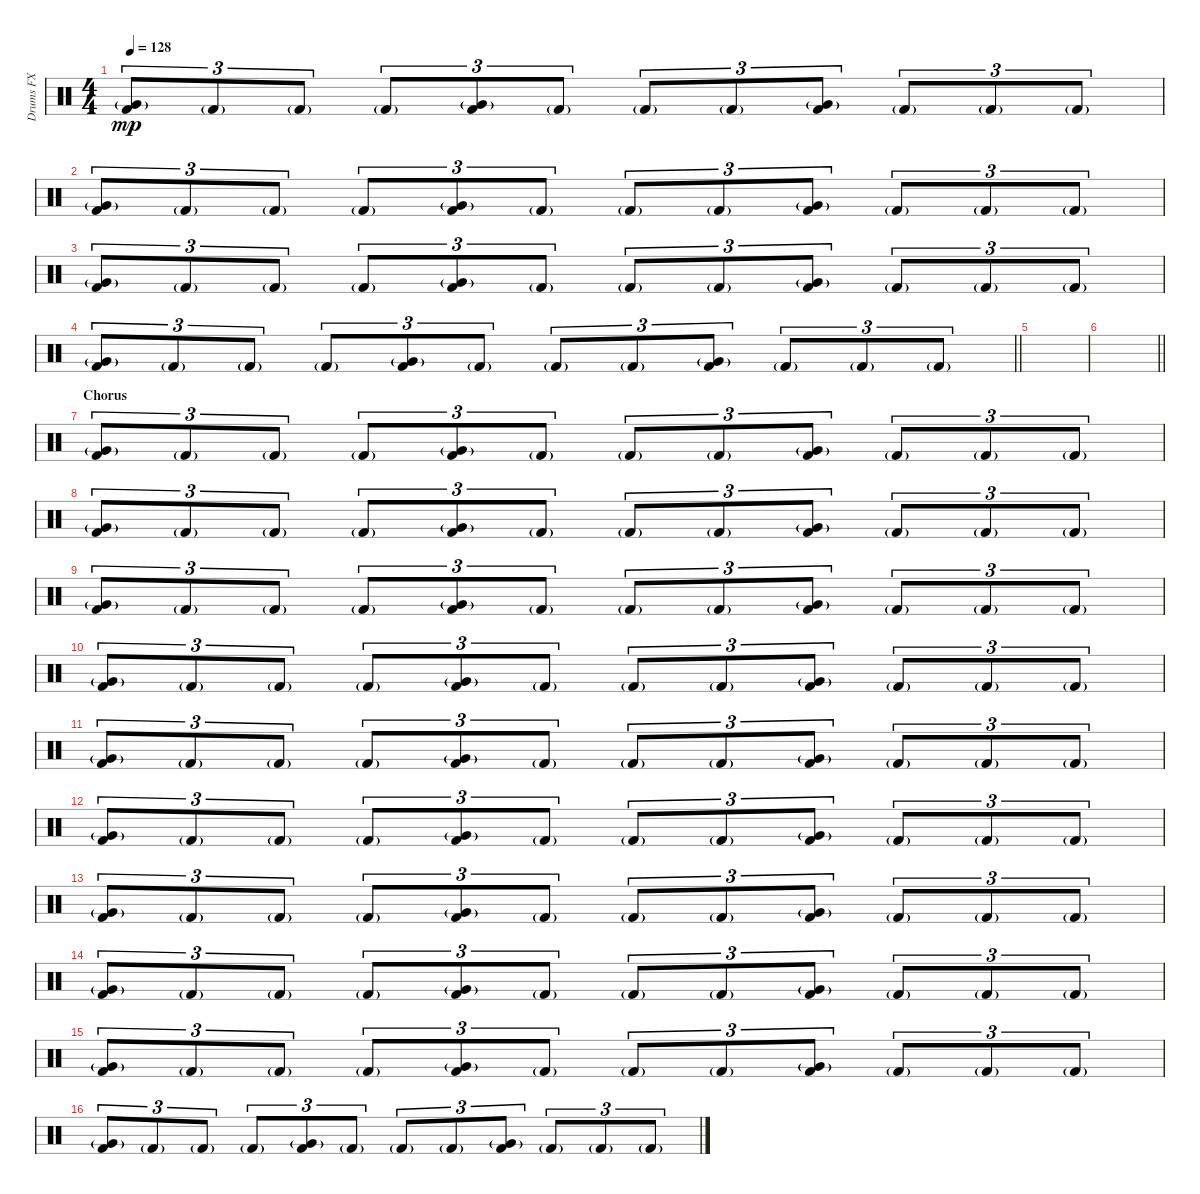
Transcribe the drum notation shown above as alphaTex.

\track ("Drums FX" "Drums FX") {instrument percussion}
\staff {score}
\articulation defaults
\ts (4 4)
\tempo 128
\clef neutral
\ks c
("Very Low Tom (hit)"{g} "Kick (hit) 2").8{tu (3 2) dy mp} "Kick (hit) 2"{g}.8{tu (3 2)} "Kick (hit) 2"{g}.8{tu (3 2)} "Kick (hit) 2"{g}.8{tu (3 2)} ("Very Low Tom (hit)"{g} "Kick (hit) 2").8{tu (3 2)} "Kick (hit) 2"{g}.8{tu (3 2)} "Kick (hit) 2"{g}.8{tu (3 2)} "Kick (hit) 2"{g}.8{tu (3 2)} ("Very Low Tom (hit)"{g} "Kick (hit) 2").8{tu (3 2)} "Kick (hit) 2"{g}.8{tu (3 2)} "Kick (hit) 2"{g}.8{tu (3 2)} "Kick (hit) 2"{g}.8{tu (3 2)} |
("Very Low Tom (hit)"{g} "Kick (hit) 2").8{tu (3 2)} "Kick (hit) 2"{g}.8{tu (3 2)} "Kick (hit) 2"{g}.8{tu (3 2)} "Kick (hit) 2"{g}.8{tu (3 2)} ("Very Low Tom (hit)"{g} "Kick (hit) 2").8{tu (3 2)} "Kick (hit) 2"{g}.8{tu (3 2)} "Kick (hit) 2"{g}.8{tu (3 2)} "Kick (hit) 2"{g}.8{tu (3 2)} ("Very Low Tom (hit)"{g} "Kick (hit) 2").8{tu (3 2)} "Kick (hit) 2"{g}.8{tu (3 2)} "Kick (hit) 2"{g}.8{tu (3 2)} "Kick (hit) 2"{g}.8{tu (3 2)} |
("Very Low Tom (hit)"{g} "Kick (hit) 2").8{tu (3 2)} "Kick (hit) 2"{g}.8{tu (3 2)} "Kick (hit) 2"{g}.8{tu (3 2)} "Kick (hit) 2"{g}.8{tu (3 2)} ("Very Low Tom (hit)"{g} "Kick (hit) 2").8{tu (3 2)} "Kick (hit) 2"{g}.8{tu (3 2)} "Kick (hit) 2"{g}.8{tu (3 2)} "Kick (hit) 2"{g}.8{tu (3 2)} ("Very Low Tom (hit)"{g} "Kick (hit) 2").8{tu (3 2)} "Kick (hit) 2"{g}.8{tu (3 2)} "Kick (hit) 2"{g}.8{tu (3 2)} "Kick (hit) 2"{g}.8{tu (3 2)} |
\barLineRight lightlight
("Very Low Tom (hit)"{g} "Kick (hit) 2").8{tu (3 2)} "Kick (hit) 2"{g}.8{tu (3 2)} "Kick (hit) 2"{g}.8{tu (3 2)} "Kick (hit) 2"{g}.8{tu (3 2)} ("Very Low Tom (hit)"{g} "Kick (hit) 2").8{tu (3 2)} "Kick (hit) 2"{g}.8{tu (3 2)} "Kick (hit) 2"{g}.8{tu (3 2)} "Kick (hit) 2"{g}.8{tu (3 2)} ("Very Low Tom (hit)"{g} "Kick (hit) 2").8{tu (3 2)} "Kick (hit) 2"{g}.8{tu (3 2)} "Kick (hit) 2"{g}.8{tu (3 2)} "Kick (hit) 2"{g}.8{tu (3 2)} |
\section ("" " ")
|
\barLineRight lightlight
|
\section ("" "Chorus")
("Very Low Tom (hit)"{g} "Kick (hit) 2").8{tu (3 2)} "Kick (hit) 2"{g}.8{tu (3 2)} "Kick (hit) 2"{g}.8{tu (3 2)} "Kick (hit) 2"{g}.8{tu (3 2)} ("Very Low Tom (hit)"{g} "Kick (hit) 2").8{tu (3 2)} "Kick (hit) 2"{g}.8{tu (3 2)} "Kick (hit) 2"{g}.8{tu (3 2)} "Kick (hit) 2"{g}.8{tu (3 2)} ("Very Low Tom (hit)"{g} "Kick (hit) 2").8{tu (3 2)} "Kick (hit) 2"{g}.8{tu (3 2)} "Kick (hit) 2"{g}.8{tu (3 2)} "Kick (hit) 2"{g}.8{tu (3 2)} |
("Very Low Tom (hit)"{g} "Kick (hit) 2").8{tu (3 2)} "Kick (hit) 2"{g}.8{tu (3 2)} "Kick (hit) 2"{g}.8{tu (3 2)} "Kick (hit) 2"{g}.8{tu (3 2)} ("Very Low Tom (hit)"{g} "Kick (hit) 2").8{tu (3 2)} "Kick (hit) 2"{g}.8{tu (3 2)} "Kick (hit) 2"{g}.8{tu (3 2)} "Kick (hit) 2"{g}.8{tu (3 2)} ("Very Low Tom (hit)"{g} "Kick (hit) 2").8{tu (3 2)} "Kick (hit) 2"{g}.8{tu (3 2)} "Kick (hit) 2"{g}.8{tu (3 2)} "Kick (hit) 2"{g}.8{tu (3 2)} |
("Very Low Tom (hit)"{g} "Kick (hit) 2").8{tu (3 2)} "Kick (hit) 2"{g}.8{tu (3 2)} "Kick (hit) 2"{g}.8{tu (3 2)} "Kick (hit) 2"{g}.8{tu (3 2)} ("Very Low Tom (hit)"{g} "Kick (hit) 2").8{tu (3 2)} "Kick (hit) 2"{g}.8{tu (3 2)} "Kick (hit) 2"{g}.8{tu (3 2)} "Kick (hit) 2"{g}.8{tu (3 2)} ("Very Low Tom (hit)"{g} "Kick (hit) 2").8{tu (3 2)} "Kick (hit) 2"{g}.8{tu (3 2)} "Kick (hit) 2"{g}.8{tu (3 2)} "Kick (hit) 2"{g}.8{tu (3 2)} |
("Very Low Tom (hit)"{g} "Kick (hit) 2").8{tu (3 2)} "Kick (hit) 2"{g}.8{tu (3 2)} "Kick (hit) 2"{g}.8{tu (3 2)} "Kick (hit) 2"{g}.8{tu (3 2)} ("Very Low Tom (hit)"{g} "Kick (hit) 2").8{tu (3 2)} "Kick (hit) 2"{g}.8{tu (3 2)} "Kick (hit) 2"{g}.8{tu (3 2)} "Kick (hit) 2"{g}.8{tu (3 2)} ("Very Low Tom (hit)"{g} "Kick (hit) 2").8{tu (3 2)} "Kick (hit) 2"{g}.8{tu (3 2)} "Kick (hit) 2"{g}.8{tu (3 2)} "Kick (hit) 2"{g}.8{tu (3 2)} |
("Very Low Tom (hit)"{g} "Kick (hit) 2").8{tu (3 2)} "Kick (hit) 2"{g}.8{tu (3 2)} "Kick (hit) 2"{g}.8{tu (3 2)} "Kick (hit) 2"{g}.8{tu (3 2)} ("Very Low Tom (hit)"{g} "Kick (hit) 2").8{tu (3 2)} "Kick (hit) 2"{g}.8{tu (3 2)} "Kick (hit) 2"{g}.8{tu (3 2)} "Kick (hit) 2"{g}.8{tu (3 2)} ("Very Low Tom (hit)"{g} "Kick (hit) 2").8{tu (3 2)} "Kick (hit) 2"{g}.8{tu (3 2)} "Kick (hit) 2"{g}.8{tu (3 2)} "Kick (hit) 2"{g}.8{tu (3 2)} |
("Very Low Tom (hit)"{g} "Kick (hit) 2").8{tu (3 2)} "Kick (hit) 2"{g}.8{tu (3 2)} "Kick (hit) 2"{g}.8{tu (3 2)} "Kick (hit) 2"{g}.8{tu (3 2)} ("Very Low Tom (hit)"{g} "Kick (hit) 2").8{tu (3 2)} "Kick (hit) 2"{g}.8{tu (3 2)} "Kick (hit) 2"{g}.8{tu (3 2)} "Kick (hit) 2"{g}.8{tu (3 2)} ("Very Low Tom (hit)"{g} "Kick (hit) 2").8{tu (3 2)} "Kick (hit) 2"{g}.8{tu (3 2)} "Kick (hit) 2"{g}.8{tu (3 2)} "Kick (hit) 2"{g}.8{tu (3 2)} |
("Very Low Tom (hit)"{g} "Kick (hit) 2").8{tu (3 2)} "Kick (hit) 2"{g}.8{tu (3 2)} "Kick (hit) 2"{g}.8{tu (3 2)} "Kick (hit) 2"{g}.8{tu (3 2)} ("Very Low Tom (hit)"{g} "Kick (hit) 2").8{tu (3 2)} "Kick (hit) 2"{g}.8{tu (3 2)} "Kick (hit) 2"{g}.8{tu (3 2)} "Kick (hit) 2"{g}.8{tu (3 2)} ("Very Low Tom (hit)"{g} "Kick (hit) 2").8{tu (3 2)} "Kick (hit) 2"{g}.8{tu (3 2)} "Kick (hit) 2"{g}.8{tu (3 2)} "Kick (hit) 2"{g}.8{tu (3 2)} |
("Very Low Tom (hit)"{g} "Kick (hit) 2").8{tu (3 2)} "Kick (hit) 2"{g}.8{tu (3 2)} "Kick (hit) 2"{g}.8{tu (3 2)} "Kick (hit) 2"{g}.8{tu (3 2)} ("Very Low Tom (hit)"{g} "Kick (hit) 2").8{tu (3 2)} "Kick (hit) 2"{g}.8{tu (3 2)} "Kick (hit) 2"{g}.8{tu (3 2)} "Kick (hit) 2"{g}.8{tu (3 2)} ("Very Low Tom (hit)"{g} "Kick (hit) 2").8{tu (3 2)} "Kick (hit) 2"{g}.8{tu (3 2)} "Kick (hit) 2"{g}.8{tu (3 2)} "Kick (hit) 2"{g}.8{tu (3 2)} |
("Very Low Tom (hit)"{g} "Kick (hit) 2").8{tu (3 2)} "Kick (hit) 2"{g}.8{tu (3 2)} "Kick (hit) 2"{g}.8{tu (3 2)} "Kick (hit) 2"{g}.8{tu (3 2)} ("Very Low Tom (hit)"{g} "Kick (hit) 2").8{tu (3 2)} "Kick (hit) 2"{g}.8{tu (3 2)} "Kick (hit) 2"{g}.8{tu (3 2)} "Kick (hit) 2"{g}.8{tu (3 2)} ("Very Low Tom (hit)"{g} "Kick (hit) 2").8{tu (3 2)} "Kick (hit) 2"{g}.8{tu (3 2)} "Kick (hit) 2"{g}.8{tu (3 2)} "Kick (hit) 2"{g}.8{tu (3 2)} |
("Very Low Tom (hit)"{g} "Kick (hit) 2").8{tu (3 2)} "Kick (hit) 2"{g}.8{tu (3 2)} "Kick (hit) 2"{g}.8{tu (3 2)} "Kick (hit) 2"{g}.8{tu (3 2)} ("Very Low Tom (hit)"{g} "Kick (hit) 2").8{tu (3 2)} "Kick (hit) 2"{g}.8{tu (3 2)} "Kick (hit) 2"{g}.8{tu (3 2)} "Kick (hit) 2"{g}.8{tu (3 2)} ("Very Low Tom (hit)"{g} "Kick (hit) 2").8{tu (3 2)} "Kick (hit) 2"{g}.8{tu (3 2)} "Kick (hit) 2"{g}.8{tu (3 2)} "Kick (hit) 2"{g}.8{tu (3 2)}
